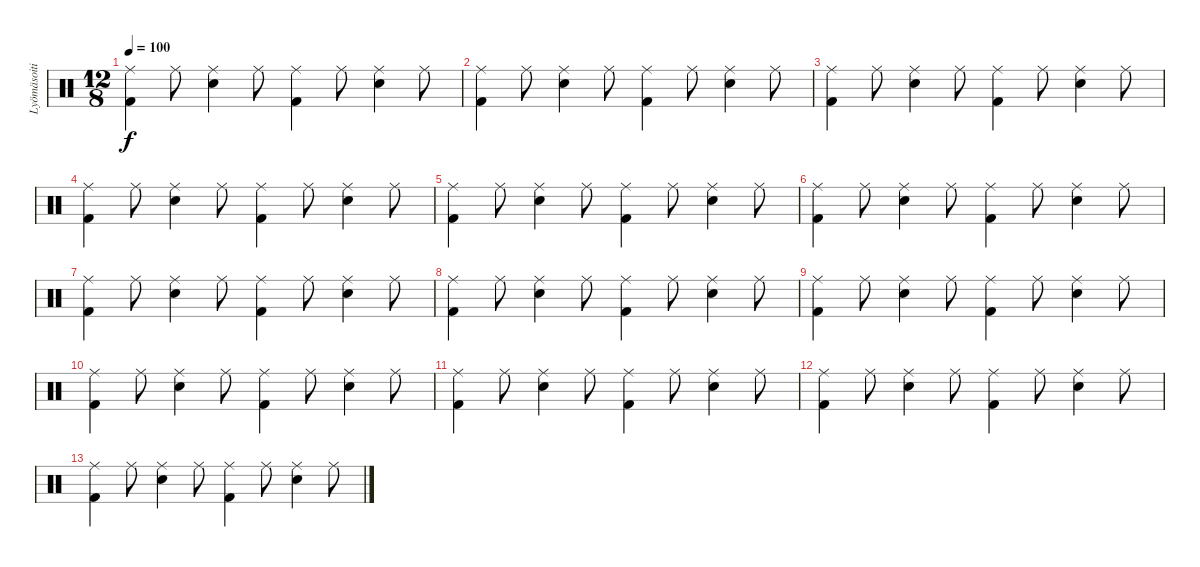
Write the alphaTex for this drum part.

\track ("Lyömäsoitin" "Lyömäsoiti") {instrument percussion}
\staff {score}
\articulation defaults
\ts (12 8)
\tempo 100
\clef neutral
\ks c
("Ride (middle)" "Kick (hit) 2").4{dy f} "Ride (middle)".8 ("Ride (middle)" "Snare (hit) 2").4 "Ride (middle)".8 ("Ride (middle)" "Kick (hit) 2").4 "Ride (middle)".8 ("Ride (middle)" "Snare (hit) 2").4 "Ride (middle)".8 |
("Ride (middle)" "Kick (hit) 2").4 "Ride (middle)".8 ("Ride (middle)" "Snare (hit) 2").4 "Ride (middle)".8 ("Ride (middle)" "Kick (hit) 2").4 "Ride (middle)".8 ("Ride (middle)" "Snare (hit) 2").4 "Ride (middle)".8 |
("Ride (middle)" "Kick (hit) 2").4 "Ride (middle)".8 ("Ride (middle)" "Snare (hit) 2").4 "Ride (middle)".8 ("Ride (middle)" "Kick (hit) 2").4 "Ride (middle)".8 ("Ride (middle)" "Snare (hit) 2").4 "Ride (middle)".8 |
("Ride (middle)" "Kick (hit) 2").4 "Ride (middle)".8 ("Ride (middle)" "Snare (hit) 2").4 "Ride (middle)".8 ("Ride (middle)" "Kick (hit) 2").4 "Ride (middle)".8 ("Ride (middle)" "Snare (hit) 2").4 "Ride (middle)".8 |
("Ride (middle)" "Kick (hit) 2").4 "Ride (middle)".8 ("Ride (middle)" "Snare (hit) 2").4 "Ride (middle)".8 ("Ride (middle)" "Kick (hit) 2").4 "Ride (middle)".8 ("Ride (middle)" "Snare (hit) 2").4 "Ride (middle)".8 |
("Ride (middle)" "Kick (hit) 2").4 "Ride (middle)".8 ("Ride (middle)" "Snare (hit) 2").4 "Ride (middle)".8 ("Ride (middle)" "Kick (hit) 2").4 "Ride (middle)".8 ("Ride (middle)" "Snare (hit) 2").4 "Ride (middle)".8 |
("Ride (middle)" "Kick (hit) 2").4 "Ride (middle)".8 ("Ride (middle)" "Snare (hit) 2").4 "Ride (middle)".8 ("Ride (middle)" "Kick (hit) 2").4 "Ride (middle)".8 ("Ride (middle)" "Snare (hit) 2").4 "Ride (middle)".8 |
("Ride (middle)" "Kick (hit) 2").4 "Ride (middle)".8 ("Ride (middle)" "Snare (hit) 2").4 "Ride (middle)".8 ("Ride (middle)" "Kick (hit) 2").4 "Ride (middle)".8 ("Ride (middle)" "Snare (hit) 2").4 "Ride (middle)".8 |
("Ride (middle)" "Kick (hit) 2").4 "Ride (middle)".8 ("Ride (middle)" "Snare (hit) 2").4 "Ride (middle)".8 ("Ride (middle)" "Kick (hit) 2").4 "Ride (middle)".8 ("Ride (middle)" "Snare (hit) 2").4 "Ride (middle)".8 |
("Ride (middle)" "Kick (hit) 2").4 "Ride (middle)".8 ("Ride (middle)" "Snare (hit) 2").4 "Ride (middle)".8 ("Ride (middle)" "Kick (hit) 2").4 "Ride (middle)".8 ("Ride (middle)" "Snare (hit) 2").4 "Ride (middle)".8 |
("Ride (middle)" "Kick (hit) 2").4 "Ride (middle)".8 ("Ride (middle)" "Snare (hit) 2").4 "Ride (middle)".8 ("Ride (middle)" "Kick (hit) 2").4 "Ride (middle)".8 ("Ride (middle)" "Snare (hit) 2").4 "Ride (middle)".8 |
("Ride (middle)" "Kick (hit) 2").4 "Ride (middle)".8 ("Ride (middle)" "Snare (hit) 2").4 "Ride (middle)".8 ("Ride (middle)" "Kick (hit) 2").4 "Ride (middle)".8 ("Ride (middle)" "Snare (hit) 2").4 "Ride (middle)".8 |
("Ride (middle)" "Kick (hit) 2").4 "Ride (middle)".8 ("Ride (middle)" "Snare (hit) 2").4 "Ride (middle)".8 ("Ride (middle)" "Kick (hit) 2").4 "Ride (middle)".8 ("Ride (middle)" "Snare (hit) 2").4 "Ride (middle)".8
